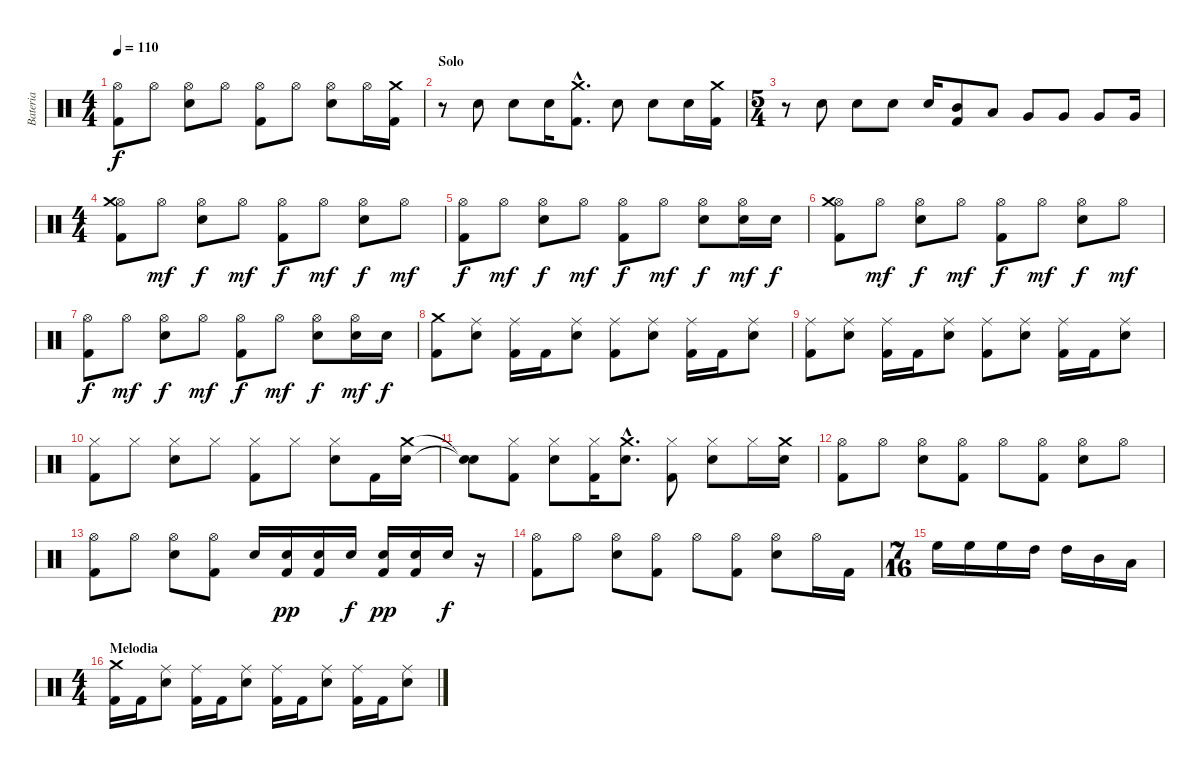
\track ("Bateria" "Bateria") {instrument percussion}
\staff {score}
\articulation defaults
\ts (4 4)
\tempo 110
\clef neutral
\ks c
("Hi-Hat (open)" "Kick (hit) 2").8{dy f} "Hi-Hat (open)".8 ("Snare (hit) 2" "Hi-Hat (open)").8 "Hi-Hat (open)".8 ("Kick (hit) 2" "Hi-Hat (open)").8 "Hi-Hat (open)".8 ("Snare (hit) 2" "Hi-Hat (open)").8 "Hi-Hat (open)".16 ("Kick (hit) 2" "Crash medium (hit)").16 |
\section ("" "Solo")
r.8 "Snare (hit) 2".8 "Snare (hit) 2".8 "Snare (hit) 2".16 ("Kick (hit) 2"{hac} "Crash medium (hit)"{hac}).8{d} "Snare (hit) 2".8 "Snare (hit) 2".8 "Snare (hit) 2".16 ("Kick (hit) 2" "Crash medium (hit)").16 |
\ts (5 4)
r.8 "Snare (hit) 2".8 "Snare (hit) 2".8 "Snare (hit) 2".8 "Snare (hit) 2".16 ("Kick (hit) 2" "Mid Tom (hit)").8 "Low Tom (hit)".8 "Very Low Tom (hit)".8 "Very Low Tom (hit)".8 "Very Low Tom (hit)".8 "Very Low Tom (hit)".16 |
\ts (4 4)
("Kick (hit) 2" "Hi-Hat (open)" "Crash medium (hit)").8 "Hi-Hat (open)".8{dy mf} ("Snare (hit) 2" "Hi-Hat (open)").8{dy f} "Hi-Hat (open)".8{dy mf} ("Kick (hit) 2" "Hi-Hat (open)").8{dy f} "Hi-Hat (open)".8{dy mf} ("Snare (hit) 2" "Hi-Hat (open)").8{dy f} "Hi-Hat (open)".8{dy mf} |
("Kick (hit) 2" "Hi-Hat (open)").8{dy f} "Hi-Hat (open)".8{dy mf} ("Snare (hit) 2" "Hi-Hat (open)").8{dy f} "Hi-Hat (open)".8{dy mf} ("Kick (hit) 2" "Hi-Hat (open)").8{dy f} "Hi-Hat (open)".8{dy mf} ("Snare (hit) 2" "Hi-Hat (open)").8{dy f} ("Snare (hit) 2" "Hi-Hat (open)").16{dy mf} "Snare (hit) 2".16{dy f} |
("Kick (hit) 2" "Hi-Hat (open)" "Crash medium (hit)").8 "Hi-Hat (open)".8{dy mf} ("Snare (hit) 2" "Hi-Hat (open)").8{dy f} "Hi-Hat (open)".8{dy mf} ("Kick (hit) 2" "Hi-Hat (open)").8{dy f} "Hi-Hat (open)".8{dy mf} ("Snare (hit) 2" "Hi-Hat (open)").8{dy f} "Hi-Hat (open)".8{dy mf} |
("Kick (hit) 2" "Hi-Hat (open)").8{dy f} "Hi-Hat (open)".8{dy mf} ("Snare (hit) 2" "Hi-Hat (open)").8{dy f} "Hi-Hat (open)".8{dy mf} ("Kick (hit) 2" "Hi-Hat (open)").8{dy f} "Hi-Hat (open)".8{dy mf} ("Snare (hit) 2" "Hi-Hat (open)").8{dy f} ("Snare (hit) 2" "Hi-Hat (open)").16{dy mf} "Snare (hit) 2".16{dy f} |
("Crash medium (hit)" "Kick (hit) 2").8 ("Snare (hit) 2" "Ride (middle)").8 ("Kick (hit) 2" "Ride (middle)").16 "Kick (hit) 2".16 ("Snare (hit) 2" "Ride (middle)").8 ("Kick (hit) 2" "Ride (middle)").8 ("Snare (hit) 2" "Ride (middle)").8 ("Kick (hit) 2" "Ride (middle)").16 "Kick (hit) 2".16 ("Snare (hit) 2" "Ride (middle)").8 |
("Ride (middle)" "Kick (hit) 2").8 ("Snare (hit) 2" "Ride (middle)").8 ("Kick (hit) 2" "Ride (middle)").16 "Kick (hit) 2".16 ("Snare (hit) 2" "Ride (middle)").8 ("Kick (hit) 2" "Ride (middle)").8 ("Snare (hit) 2" "Ride (middle)").8 ("Kick (hit) 2" "Ride (middle)").16 "Kick (hit) 2".16 ("Snare (hit) 2" "Ride (middle)").8 |
("Hi-Hat (closed)" "Kick (hit) 2").8 "Hi-Hat (closed)".8 ("Hi-Hat (closed)" "Snare (hit) 2").8 "Hi-Hat (closed)".8 ("Hi-Hat (closed)" "Kick (hit) 2").8 "Hi-Hat (closed)".8 ("Hi-Hat (closed)" "Snare (hit) 2").8 "Kick (hit) 2".16 ("Crash medium (hit)" "Snare (hit) 2").16 |
("Snare (hit)"{t} "Snare (hit)"{t}).8 ("Hi-Hat (closed)" "Kick (hit) 2").8 ("Hi-Hat (closed)" "Snare (hit) 2").8 ("Hi-Hat (closed)" "Kick (hit) 2").16 ("Crash medium (hit)"{hac} "Snare (hit) 2"{hac}).8{d} ("Hi-Hat (closed)" "Kick (hit) 2").8 ("Hi-Hat (closed)" "Snare (hit) 2").8 "Hi-Hat (closed)".16 ("Crash medium (hit)" "Snare (hit) 2").16 |
("Hi-Hat (open)" "Kick (hit) 2").8 "Hi-Hat (open)".8 ("Hi-Hat (open)" "Snare (hit) 2").8 ("Hi-Hat (open)" "Kick (hit) 2").8 "Hi-Hat (open)".8 ("Hi-Hat (open)" "Kick (hit) 2").8 ("Hi-Hat (open)" "Snare (hit) 2").8 "Hi-Hat (open)".8 |
("Hi-Hat (open)" "Kick (hit) 2").8 "Hi-Hat (open)".8 ("Hi-Hat (open)" "Snare (hit) 2").8 ("Hi-Hat (open)" "Kick (hit) 2").8 "Snare (hit) 2".16 ("Kick (hit) 2" "Snare (hit) 2").16{dy pp} ("Kick (hit) 2" "Snare (hit) 2").16 "Snare (hit) 2".16{dy f} ("Kick (hit) 2" "Snare (hit) 2").16{dy pp} ("Kick (hit) 2" "Snare (hit) 2").16 "Snare (hit) 2".16{dy f} r.16 |
("Hi-Hat (open)" "Kick (hit) 2").8 "Hi-Hat (open)".8 ("Hi-Hat (open)" "Snare (hit) 2").8 ("Hi-Hat (open)" "Kick (hit) 2").8 "Hi-Hat (open)".8 ("Hi-Hat (open)" "Kick (hit) 2").8 ("Hi-Hat (open)" "Snare (hit) 2").8 "Hi-Hat (open)".16 "Kick (hit) 2".16 |
\ts (7 16)
"High Floor Tom (hit)".16 "High Floor Tom (hit)".16 "High Floor Tom (hit)".16 "High Tom (hit)".16 "High Tom (hit)".16 "Mid Tom (hit)".16 "Low Tom (hit)".16 |
\ts (4 4)
\section ("" "Melodia")
("Kick (hit) 2" "Crash medium (hit)").16 "Kick (hit) 2".16 ("Ride (middle)" "Snare (hit) 2").8 ("Kick (hit) 2" "Ride (middle)").16 "Kick (hit) 2".16 ("Ride (middle)" "Snare (hit) 2").8 ("Kick (hit) 2" "Ride (middle)").16 "Kick (hit) 2".16 ("Ride (middle)" "Snare (hit) 2").8 ("Kick (hit) 2" "Ride (middle)").16 "Kick (hit) 2".16 ("Ride (middle)" "Snare (hit) 2").8
